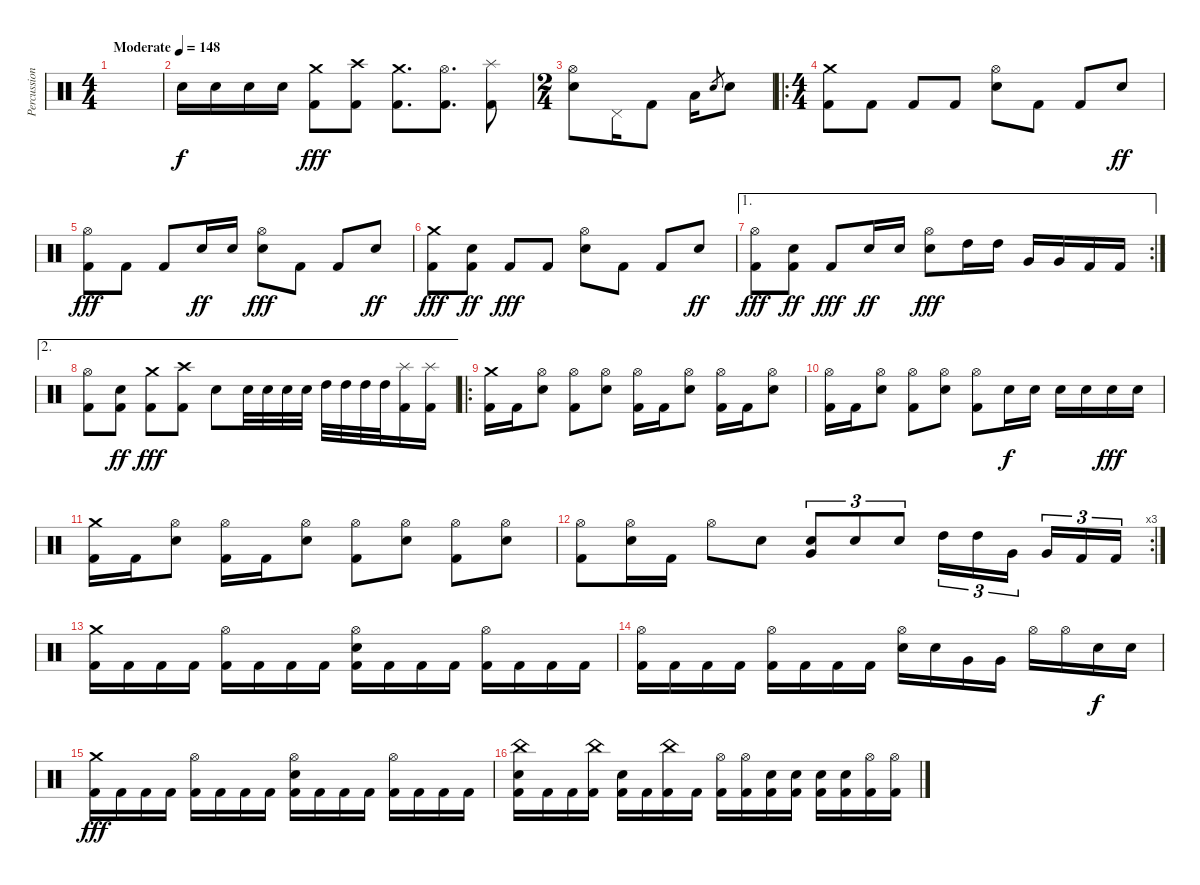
\track ("Percussion" "Percussion") {instrument percussion}
\staff {score}
\articulation defaults
\ts (4 4)
\tempo (148 "Moderate")
\clef neutral
\ks c
|
"Electric Snare (hit)".16 "Electric Snare (hit)".16 "Electric Snare (hit)".16 "Electric Snare (hit)".16 ("Crash medium (hit)" "Kick (hit) 2").8{dy fff} ("Kick (hit) 2" "Crash high (hit)").8 ("Crash medium (hit)" "Kick (hit) 2").8{d} ("Hi-Hat (open)" "Kick (hit) 2").8{d} ("Splash (hit)" "Kick (hit) 2").8 |
\ts (2 4)
("Hi-Hat (open)" "Electric Snare (hit)").8 "Pedal Hi-Hat (hit)".16 "Kick (hit) 2".8 "Low Floor Tom (hit)".16 "Electric Snare (hit)".8{gr} "Electric Snare (hit)".8 |
\ro
\ts (4 4)
("Kick (hit) 2" "Crash medium (hit)").8 "Kick (hit) 2".8 "Kick (hit) 2".8 "Kick (hit) 2".8 ("Electric Snare (hit)" "Hi-Hat (open)").8 "Kick (hit) 2".8 "Kick (hit) 2".8 "Electric Snare (hit)".8{dy ff} |
("Kick (hit) 2" "Hi-Hat (open)").8{dy fff} "Kick (hit) 2".8 "Kick (hit) 2".8 "Electric Snare (hit)".16{dy ff} "Electric Snare (hit)".16 ("Electric Snare (hit)" "Hi-Hat (open)").8{dy fff} "Kick (hit) 2".8 "Kick (hit) 2".8 "Electric Snare (hit)".8{dy ff} |
("Kick (hit) 2" "Crash medium (hit)").8{dy fff} ("Kick (hit) 2" "Electric Snare (hit)").8{dy ff} "Kick (hit) 2".8{dy fff} "Kick (hit) 2".8 ("Electric Snare (hit)" "Hi-Hat (open)").8 "Kick (hit) 2".8 "Kick (hit) 2".8 "Electric Snare (hit)".8{dy ff} |
\ae 1
\rc 2
("Kick (hit) 2" "Hi-Hat (open)").8{dy fff} ("Kick (hit) 2" "Electric Snare (hit)").8{dy ff} "Kick (hit) 2".8{dy fff} "Electric Snare (hit)".16{dy ff} "Electric Snare (hit)".16 ("Electric Snare (hit)" "Hi-Hat (open)").8{dy fff} "High Tom (hit)".16 "High Tom (hit)".16 "Very Low Tom (hit)".16 "Very Low Tom (hit)".16 "Kick (hit) 2".16 "Kick (hit) 2".16 |
\ae 2
("Kick (hit) 2" "Hi-Hat (open)").8 ("Kick (hit) 2" "Electric Snare (hit)").8{dy ff} ("Crash medium (hit)" "Kick (hit) 2").8{dy fff} ("Crash high (hit)" "Kick (hit) 2").8 "Electric Snare (hit)".8 "Electric Snare (hit)".32 "Electric Snare (hit)".32 "Electric Snare (hit)".32 "Electric Snare (hit)".32 "High Tom (hit)".32 "High Tom (hit)".32 "High Tom (hit)".32 "High Tom (hit)".32 ("Kick (hit) 2" "Splash (hit)").16 ("Kick (hit) 2" "Splash (hit)").16 |
\ro
("Crash medium (hit)" "Kick (hit) 2").16 "Kick (hit) 2".16 ("Electric Snare (hit)" "Hi-Hat (open)").8 ("Hi-Hat (open)" "Kick (hit) 2").8 ("Electric Snare (hit)" "Hi-Hat (open)").8 ("Kick (hit) 2" "Hi-Hat (open)").16 "Kick (hit) 2".16 ("Electric Snare (hit)" "Hi-Hat (open)").8 ("Kick (hit) 2" "Hi-Hat (open)").16 "Kick (hit) 2".16 ("Electric Snare (hit)" "Hi-Hat (open)").8 |
("Kick (hit) 2" "Hi-Hat (open)").16 "Kick (hit) 2".16 ("Electric Snare (hit)" "Hi-Hat (open)").8 ("Hi-Hat (open)" "Kick (hit) 2").8 ("Electric Snare (hit)" "Hi-Hat (open)").8 ("Hi-Hat (open)" "Kick (hit) 2").8 "Electric Snare (hit)".16{dy f} "Electric Snare (hit)".16 "Electric Snare (hit)".16 "Electric Snare (hit)".16 "Electric Snare (hit)".16{dy fff} "Electric Snare (hit)".16 |
("Crash medium (hit)" "Kick (hit) 2").16 "Kick (hit) 2".16 ("Electric Snare (hit)" "Hi-Hat (open)").8 ("Kick (hit) 2" "Hi-Hat (open)").16 "Kick (hit) 2".16 ("Electric Snare (hit)" "Hi-Hat (open)").8 ("Hi-Hat (open)" "Kick (hit) 2").8 ("Electric Snare (hit)" "Hi-Hat (open)").8 ("Hi-Hat (open)" "Kick (hit) 2").8 ("Electric Snare (hit)" "Hi-Hat (open)").8 |
\rc 3
("Hi-Hat (open)" "Kick (hit) 2").8 ("Electric Snare (hit)" "Hi-Hat (open)").16 "Kick (hit) 2".16 "Hi-Hat (open)".8 "Electric Snare (hit)".8 ("Electric Snare (hit)" "Very Low Tom (hit)").8{tu (3 2)} "Electric Snare (hit)".8{tu (3 2)} "Electric Snare (hit)".8{tu (3 2)} "High Tom (hit)".16{tu (3 2)} "High Tom (hit)".16{tu (3 2)} "Very Low Tom (hit)".16{tu (3 2) beam splitsecondary} "Very Low Tom (hit)".16{tu (3 2)} "Kick (hit) 2".16{tu (3 2)} "Kick (hit) 2".16{tu (3 2)} |
("Crash medium (hit)" "Kick (hit) 2").16 "Kick (hit) 2".16 "Kick (hit) 2".16 "Kick (hit) 2".16 ("Kick (hit) 2" "Hi-Hat (open)").16 "Kick (hit) 2".16 "Kick (hit) 2".16 "Kick (hit) 2".16 ("Kick (hit) 2" "Hi-Hat (open)" "Electric Snare (hit)").16 "Kick (hit) 2".16 "Kick (hit) 2".16 "Kick (hit) 2".16 ("Kick (hit) 2" "Hi-Hat (open)").16 "Kick (hit) 2".16 "Kick (hit) 2".16 "Kick (hit) 2".16 |
("Kick (hit) 2" "Hi-Hat (open)").16 "Kick (hit) 2".16 "Kick (hit) 2".16 "Kick (hit) 2".16 ("Kick (hit) 2" "Hi-Hat (open)").16 "Kick (hit) 2".16 "Kick (hit) 2".16 "Kick (hit) 2".16 ("Electric Snare (hit)" "Hi-Hat (open)").16 "Electric Snare (hit)".16 "Very Low Tom (hit)".16 "Very Low Tom (hit)".16 "Hi-Hat (open)".16 "Hi-Hat (open)".16 "Electric Snare (hit)".16{dy f} "Electric Snare (hit)".16 |
("Crash medium (hit)" "Kick (hit) 2").16{dy fff} "Kick (hit) 2".16 "Kick (hit) 2".16 "Kick (hit) 2".16 ("Kick (hit) 2" "Hi-Hat (open)").16 "Kick (hit) 2".16 "Kick (hit) 2".16 "Kick (hit) 2".16 ("Kick (hit) 2" "Hi-Hat (open)" "Electric Snare (hit)").16 "Kick (hit) 2".16 "Kick (hit) 2".16 "Kick (hit) 2".16 ("Kick (hit) 2" "Hi-Hat (open)").16 "Kick (hit) 2".16 "Kick (hit) 2".16 "Kick (hit) 2".16 |
("Kick (hit) 2" "China (hit)" "Electric Snare (hit)").16 "Kick (hit) 2".16 "Kick (hit) 2".16 ("Kick (hit) 2" "China (hit)").16 ("Kick (hit) 2" "Electric Snare (hit)").16 "Kick (hit) 2".16 ("Kick (hit) 2" "China (hit)").16 "Kick (hit) 2".16 ("Kick (hit) 2" "Hi-Hat (open)").16 ("Kick (hit) 2" "Hi-Hat (open)").16 ("Kick (hit) 2" "Electric Snare (hit)").16 ("Kick (hit) 2" "Electric Snare (hit)").16 ("Electric Snare (hit)" "Kick (hit) 2").16 ("Kick (hit) 2" "Electric Snare (hit)").16 ("Kick (hit) 2" "Hi-Hat (open)").16 ("Kick (hit) 2" "Hi-Hat (open)").16
